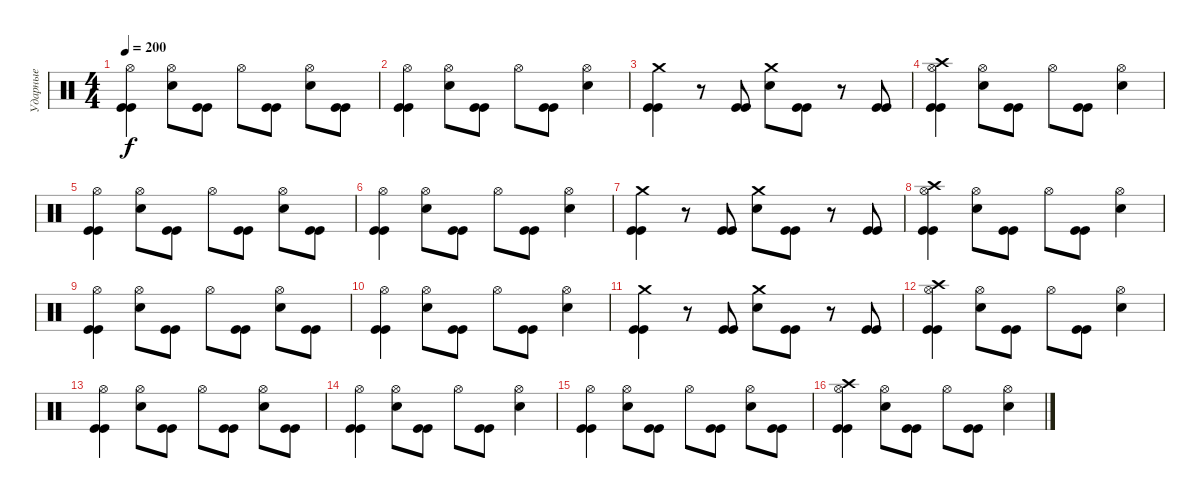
\track ("Ударные" "Ударные") {instrument percussion}
\staff {score}
\articulation defaults
\ts (4 4)
\tempo 200
\clef neutral
\ks c
("Hi-Hat (open)" "Kick (hit)" "Kick (hit)").4{dy f} ("Hi-Hat (open)" "Electric Snare (hit)").8 ("Kick (hit)" "Kick (hit)").8 "Hi-Hat (open)".8 ("Kick (hit)" "Kick (hit)").8 ("Hi-Hat (open)" "Electric Snare (hit)").8 ("Kick (hit)" "Kick (hit)").8 |
("Hi-Hat (open)" "Kick (hit)" "Kick (hit)").4 ("Hi-Hat (open)" "Electric Snare (hit)").8 ("Kick (hit)" "Kick (hit)").8 "Hi-Hat (open)".8 ("Kick (hit)" "Kick (hit)").8 ("Hi-Hat (open)" "Electric Snare (hit)").4 |
("Crash medium (hit)" "Kick (hit)" "Kick (hit)").4 r.8 ("Kick (hit)" "Kick (hit)").8 ("Crash medium (hit)" "Electric Snare (hit)").8 ("Kick (hit)" "Kick (hit)").8 r.8 ("Kick (hit)" "Kick (hit)").8 |
("Crash high (hit)" "Hi-Hat (open)" "Kick (hit)" "Kick (hit)").4 ("Hi-Hat (open)" "Electric Snare (hit)").8 ("Kick (hit)" "Kick (hit)").8 "Hi-Hat (open)".8 ("Kick (hit)" "Kick (hit)").8 ("Hi-Hat (open)" "Electric Snare (hit)").4 |
("Hi-Hat (open)" "Kick (hit)" "Kick (hit)").4 ("Hi-Hat (open)" "Electric Snare (hit)").8 ("Kick (hit)" "Kick (hit)").8 "Hi-Hat (open)".8 ("Kick (hit)" "Kick (hit)").8 ("Hi-Hat (open)" "Electric Snare (hit)").8 ("Kick (hit)" "Kick (hit)").8 |
("Hi-Hat (open)" "Kick (hit)" "Kick (hit)").4 ("Hi-Hat (open)" "Electric Snare (hit)").8 ("Kick (hit)" "Kick (hit)").8 "Hi-Hat (open)".8 ("Kick (hit)" "Kick (hit)").8 ("Hi-Hat (open)" "Electric Snare (hit)").4 |
("Crash medium (hit)" "Kick (hit)" "Kick (hit)").4 r.8 ("Kick (hit)" "Kick (hit)").8 ("Crash medium (hit)" "Electric Snare (hit)").8 ("Kick (hit)" "Kick (hit)").8 r.8 ("Kick (hit)" "Kick (hit)").8 |
("Crash high (hit)" "Hi-Hat (open)" "Kick (hit)" "Kick (hit)").4 ("Hi-Hat (open)" "Electric Snare (hit)").8 ("Kick (hit)" "Kick (hit)").8 "Hi-Hat (open)".8 ("Kick (hit)" "Kick (hit)").8 ("Hi-Hat (open)" "Electric Snare (hit)").4 |
("Hi-Hat (open)" "Kick (hit)" "Kick (hit)").4 ("Hi-Hat (open)" "Electric Snare (hit)").8 ("Kick (hit)" "Kick (hit)").8 "Hi-Hat (open)".8 ("Kick (hit)" "Kick (hit)").8 ("Hi-Hat (open)" "Electric Snare (hit)").8 ("Kick (hit)" "Kick (hit)").8 |
("Hi-Hat (open)" "Kick (hit)" "Kick (hit)").4 ("Hi-Hat (open)" "Electric Snare (hit)").8 ("Kick (hit)" "Kick (hit)").8 "Hi-Hat (open)".8 ("Kick (hit)" "Kick (hit)").8 ("Hi-Hat (open)" "Electric Snare (hit)").4 |
("Crash medium (hit)" "Kick (hit)" "Kick (hit)").4 r.8 ("Kick (hit)" "Kick (hit)").8 ("Crash medium (hit)" "Electric Snare (hit)").8 ("Kick (hit)" "Kick (hit)").8 r.8 ("Kick (hit)" "Kick (hit)").8 |
("Crash high (hit)" "Hi-Hat (open)" "Kick (hit)" "Kick (hit)").4 ("Hi-Hat (open)" "Electric Snare (hit)").8 ("Kick (hit)" "Kick (hit)").8 "Hi-Hat (open)".8 ("Kick (hit)" "Kick (hit)").8 ("Hi-Hat (open)" "Electric Snare (hit)").4 |
("Hi-Hat (open)" "Kick (hit)" "Kick (hit)").4 ("Hi-Hat (open)" "Electric Snare (hit)").8 ("Kick (hit)" "Kick (hit)").8 "Hi-Hat (open)".8 ("Kick (hit)" "Kick (hit)").8 ("Hi-Hat (open)" "Electric Snare (hit)").8 ("Kick (hit)" "Kick (hit)").8 |
("Hi-Hat (open)" "Kick (hit)" "Kick (hit)").4 ("Hi-Hat (open)" "Electric Snare (hit)").8 ("Kick (hit)" "Kick (hit)").8 "Hi-Hat (open)".8 ("Kick (hit)" "Kick (hit)").8 ("Hi-Hat (open)" "Electric Snare (hit)").4 |
("Hi-Hat (open)" "Kick (hit)" "Kick (hit)").4 ("Hi-Hat (open)" "Electric Snare (hit)").8 ("Kick (hit)" "Kick (hit)").8 "Hi-Hat (open)".8 ("Kick (hit)" "Kick (hit)").8 ("Hi-Hat (open)" "Electric Snare (hit)").8 ("Kick (hit)" "Kick (hit)").8 |
("Crash high (hit)" "Hi-Hat (open)" "Kick (hit)" "Kick (hit)").4 ("Hi-Hat (open)" "Electric Snare (hit)").8 ("Kick (hit)" "Kick (hit)").8 "Hi-Hat (open)".8 ("Kick (hit)" "Kick (hit)").8 ("Hi-Hat (open)" "Electric Snare (hit)").4
